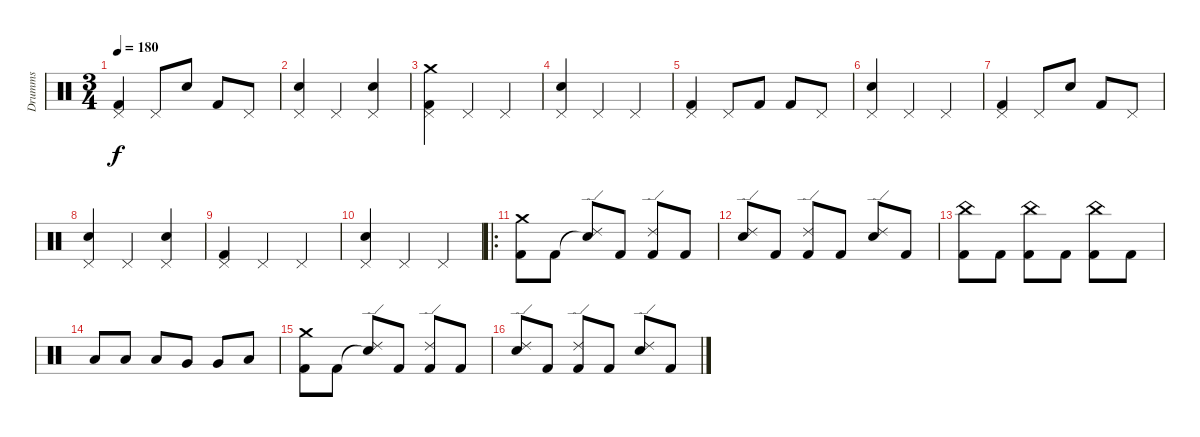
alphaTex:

\track ("Drumms" "Drumms") {instrument percussion}
\staff {score}
\articulation defaults
\ts (3 4)
\tempo 180
\clef neutral
\ks c
("Pedal Hi-Hat (hit)" "Kick (hit) 2").4{dy f} "Pedal Hi-Hat (hit)".8 "Snare (hit) 2".8 "Kick (hit) 2".8 "Pedal Hi-Hat (hit)".8 |
("Pedal Hi-Hat (hit)" "Snare (hit) 2").4 "Pedal Hi-Hat (hit)".4 ("Pedal Hi-Hat (hit)" "Snare (hit) 2").4 |
("Pedal Hi-Hat (hit)" "Kick (hit) 2" "Crash medium (hit)").4 "Pedal Hi-Hat (hit)".4 "Pedal Hi-Hat (hit)".4 |
("Pedal Hi-Hat (hit)" "Snare (hit) 2").4 "Pedal Hi-Hat (hit)".4 "Pedal Hi-Hat (hit)".4 |
("Pedal Hi-Hat (hit)" "Kick (hit) 2").4 "Pedal Hi-Hat (hit)".8 "Kick (hit) 2".8 "Kick (hit) 2".8 "Pedal Hi-Hat (hit)".8 |
("Pedal Hi-Hat (hit)" "Snare (hit) 2").4 "Pedal Hi-Hat (hit)".4 "Pedal Hi-Hat (hit)".4 |
("Pedal Hi-Hat (hit)" "Kick (hit) 2").4 "Pedal Hi-Hat (hit)".8 "Snare (hit) 2".8 "Kick (hit) 2".8 "Pedal Hi-Hat (hit)".8 |
("Pedal Hi-Hat (hit)" "Snare (hit) 2").4 "Pedal Hi-Hat (hit)".4 ("Pedal Hi-Hat (hit)" "Snare (hit) 2").4 |
("Pedal Hi-Hat (hit)" "Kick (hit) 2").4 "Pedal Hi-Hat (hit)".4 "Pedal Hi-Hat (hit)".4 |
("Pedal Hi-Hat (hit)" "Snare (hit) 2").4 "Pedal Hi-Hat (hit)".4 "Pedal Hi-Hat (hit)".4 |
\ro
("Kick (hit) 2" "Crash medium (hit)").8 "Kick (hit) 2".8 ("Snare (hit) 2"{t} "Ride (edge) 2").8 "Kick (hit) 2".8 ("Kick (hit) 2" "Ride (edge) 2").8 "Kick (hit) 2".8 |
("Snare (hit) 2" "Ride (edge) 2").8 "Kick (hit) 2".8 ("Kick (hit) 2" "Ride (edge) 2").8 "Kick (hit) 2".8 ("Snare (hit) 2" "Ride (edge) 2").8 "Kick (hit) 2".8 |
("Kick (hit) 2" "China (hit)").8 "Kick (hit) 2".8 ("Kick (hit) 2" "China (hit)").8 "Kick (hit) 2".8 ("Kick (hit) 2" "China (hit)").8 "Kick (hit) 2".8 |
"Low Tom (hit)".8 "Low Tom (hit)".8 "Low Tom (hit)".8 "Very Low Tom (hit)".8 "Very Low Tom (hit)".8 "Low Floor Tom (hit)".8 |
("Kick (hit) 2" "Crash medium (hit)").8 "Kick (hit) 2".8 ("Snare (hit) 2"{t} "Ride (edge) 2").8 "Kick (hit) 2".8 ("Kick (hit) 2" "Ride (edge) 2").8 "Kick (hit) 2".8 |
("Snare (hit) 2" "Ride (edge) 2").8 "Kick (hit) 2".8 ("Kick (hit) 2" "Ride (edge) 2").8 "Kick (hit) 2".8 ("Snare (hit) 2" "Ride (edge) 2").8 "Kick (hit) 2".8
